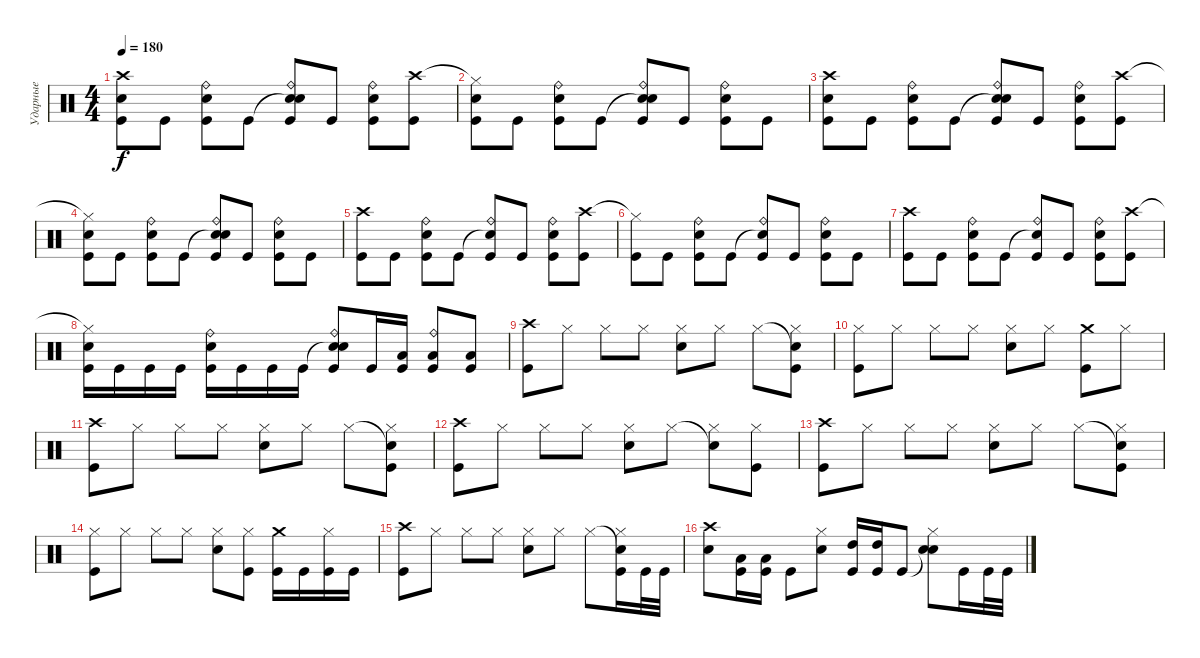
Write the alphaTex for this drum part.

\track ("Ударные" "Ударные") {instrument percussion}
\staff {score}
\articulation defaults
\ts (4 4)
\tempo 180
\clef neutral
\ks c
("Crash high (hit)" "Electric Snare (hit)" "Kick (hit)").8{dy f} "Kick (hit)".8 ("Ride (bell)" "Electric Snare (hit)" "Kick (hit)").8 "Kick (hit)".8 ("Snare (hit)"{t} "Ride (bell)" "Electric Snare (hit)" "Kick (hit)").8 "Kick (hit)".8 ("Ride (bell)" "Electric Snare (hit)" "Kick (hit)").8 ("Crash high (hit)" "Kick (hit)").8 |
("Hi-Hat (closed)"{t} "Electric Snare (hit)" "Kick (hit)").8 "Kick (hit)".8 ("Ride (bell)" "Electric Snare (hit)" "Kick (hit)").8 "Kick (hit)".8 ("Snare (hit)"{t} "Ride (bell)" "Electric Snare (hit)" "Kick (hit)").8 "Kick (hit)".8 ("Ride (bell)" "Electric Snare (hit)" "Kick (hit)").8 "Kick (hit)".8 |
("Crash high (hit)" "Electric Snare (hit)" "Kick (hit)").8 "Kick (hit)".8 ("Ride (bell)" "Electric Snare (hit)" "Kick (hit)").8 "Kick (hit)".8 ("Snare (hit)"{t} "Ride (bell)" "Electric Snare (hit)" "Kick (hit)").8 "Kick (hit)".8 ("Ride (bell)" "Electric Snare (hit)" "Kick (hit)").8 ("Crash high (hit)" "Kick (hit)").8 |
("Hi-Hat (closed)"{t} "Electric Snare (hit)" "Kick (hit)").8 "Kick (hit)".8 ("Ride (bell)" "Electric Snare (hit)" "Kick (hit)").8 "Kick (hit)".8 ("Snare (hit)"{t} "Ride (bell)" "Electric Snare (hit)" "Kick (hit)").8 "Kick (hit)".8 ("Ride (bell)" "Electric Snare (hit)" "Kick (hit)").8 "Kick (hit)".8 |
("Crash high (hit)" "Kick (hit)").8 "Kick (hit)".8 ("Ride (bell)" "Electric Snare (hit)" "Kick (hit)").8 "Kick (hit)".8 ("Snare (hit)"{t} "Ride (bell)" "Kick (hit)").8 "Kick (hit)".8 ("Ride (bell)" "Electric Snare (hit)" "Kick (hit)").8 ("Crash high (hit)" "Kick (hit)").8 |
("Hi-Hat (closed)"{t} "Kick (hit)").8 "Kick (hit)".8 ("Ride (bell)" "Electric Snare (hit)" "Kick (hit)").8 "Kick (hit)".8 ("Snare (hit)"{t} "Ride (bell)" "Kick (hit)").8 "Kick (hit)".8 ("Ride (bell)" "Electric Snare (hit)" "Kick (hit)").8 "Kick (hit)".8 |
("Crash high (hit)" "Kick (hit)").8 "Kick (hit)".8 ("Ride (bell)" "Electric Snare (hit)" "Kick (hit)").8 "Kick (hit)".8 ("Snare (hit)"{t} "Ride (bell)" "Kick (hit)").8 "Kick (hit)".8 ("Ride (bell)" "Electric Snare (hit)" "Kick (hit)").8 ("Crash high (hit)" "Kick (hit)").8 |
("Hi-Hat (closed)"{t} "Electric Snare (hit)" "Kick (hit)").16 "Kick (hit)".16 "Kick (hit)".16 "Kick (hit)".16 ("Ride (bell)" "Electric Snare (hit)" "Kick (hit)").16 "Kick (hit)".16 "Kick (hit)".16 "Kick (hit)".16 ("Snare (hit)"{t} "Ride (bell)" "Electric Snare (hit)" "Kick (hit)").8 "Kick (hit)".16 ("Low Tom (hit)" "Kick (hit)").16 ("Ride (bell)" "Low Tom (hit)" "Kick (hit)").8 ("Low Tom (hit)" "Kick (hit)").8 |
("Crash high (hit)" "Kick (hit)").8 "Hi-Hat (closed)".8 "Hi-Hat (closed)".8 "Hi-Hat (closed)".8 ("Hi-Hat (closed)" "Electric Snare (hit)").8 "Hi-Hat (closed)".8 "Hi-Hat (closed)".8 ("Snare (hit)"{t} "Hi-Hat (closed)" "Kick (hit)").8 |
("Hi-Hat (closed)" "Kick (hit)").8 "Hi-Hat (closed)".8 "Hi-Hat (closed)".8 "Hi-Hat (closed)".8 ("Hi-Hat (closed)" "Electric Snare (hit)").8 "Hi-Hat (closed)".8 ("Crash medium (hit)" "Kick (hit)").8 "Hi-Hat (closed)".8 |
("Crash high (hit)" "Kick (hit)").8 "Hi-Hat (closed)".8 "Hi-Hat (closed)".8 "Hi-Hat (closed)".8 ("Hi-Hat (closed)" "Electric Snare (hit)").8 "Hi-Hat (closed)".8 "Hi-Hat (closed)".8 ("Snare (hit)"{t} "Hi-Hat (closed)" "Kick (hit)").8 |
("Crash high (hit)" "Kick (hit)").8 "Hi-Hat (closed)".8 "Hi-Hat (closed)".8 "Hi-Hat (closed)".8 ("Hi-Hat (closed)" "Electric Snare (hit)").8 "Hi-Hat (closed)".8 ("Snare (hit)"{t} "Hi-Hat (closed)").8 ("Hi-Hat (closed)" "Kick (hit)").8 |
("Crash high (hit)" "Kick (hit)").8 "Hi-Hat (closed)".8 "Hi-Hat (closed)".8 "Hi-Hat (closed)".8 ("Hi-Hat (closed)" "Electric Snare (hit)").8 "Hi-Hat (closed)".8 "Hi-Hat (closed)".8 ("Snare (hit)"{t} "Hi-Hat (closed)" "Kick (hit)").8 |
("Hi-Hat (closed)" "Kick (hit)").8 "Hi-Hat (closed)".8 "Hi-Hat (closed)".8 "Hi-Hat (closed)".8 ("Hi-Hat (closed)" "Electric Snare (hit)").8 ("Hi-Hat (closed)" "Kick (hit)").8 ("Crash medium (hit)" "Kick (hit)").16 "Kick (hit)".16 ("Hi-Hat (closed)" "Kick (hit)").16 "Kick (hit)".16 |
("Crash high (hit)" "Kick (hit)").8 "Hi-Hat (closed)".8 "Hi-Hat (closed)".8 "Hi-Hat (closed)".8 ("Hi-Hat (closed)" "Electric Snare (hit)").8 "Hi-Hat (closed)".8 "Hi-Hat (closed)".8 ("Snare (hit)"{t} "Hi-Hat (closed)" "Kick (hit)").16 "Kick (hit)".32 "Kick (hit)".32 |
("Crash high (hit)" "Electric Snare (hit)").8 ("Low Tom (hit)" "Kick (hit)").16 ("Low Tom (hit)" "Kick (hit)").16 "Kick (hit)".8 ("Hi-Hat (closed)" "Electric Snare (hit)").8 ("High Tom (hit)" "Kick (hit)").16 ("High Tom (hit)" "Kick (hit)").16 "Kick (hit)".8 ("Snare (hit)"{t} "Hi-Hat (closed)" "Electric Snare (hit)").8 "Kick (hit)".16 "Kick (hit)".32 "Kick (hit)".32
